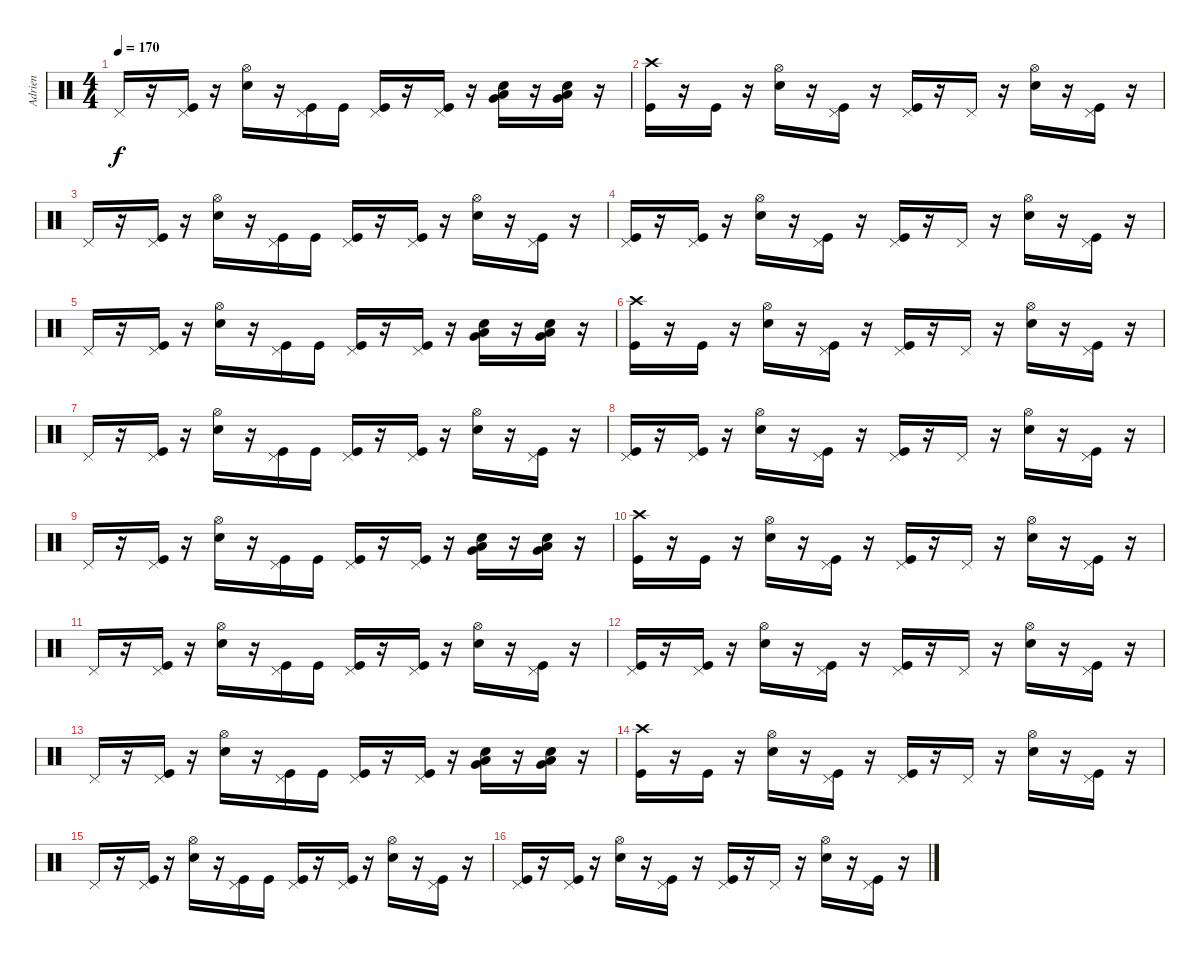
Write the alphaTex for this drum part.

\track ("Adrien" "Adrien") {instrument percussion}
\staff {score}
\articulation defaults
\ts (4 4)
\tempo 170
\clef neutral
\ks c "Pedal Hi-Hat (hit)".16{dy f}
r.16 ("Pedal Hi-Hat (hit)" "Kick (hit)").16 r.16 ("Hi-Hat (open)" "Electric Snare (hit)").16 r.16 ("Pedal Hi-Hat (hit)" "Kick (hit)").16 "Kick (hit)".16 ("Pedal Hi-Hat (hit)" "Kick (hit)").16 r.16 ("Pedal Hi-Hat (hit)" "Kick (hit)").16 r.16 ("Very Low Tom (hit)" "Low Floor Tom (hit)" "Electric Snare (hit)").16 r.16 ("Very Low Tom (hit)" "Low Floor Tom (hit)" "Electric Snare (hit)").16 r.16 |
("Crash high (hit)" "Kick (hit)").16 r.16 "Kick (hit)".16 r.16 ("Hi-Hat (open)" "Electric Snare (hit)").16 r.16 ("Pedal Hi-Hat (hit)" "Kick (hit)").16 r.16 ("Pedal Hi-Hat (hit)" "Kick (hit)").16 r.16 "Pedal Hi-Hat (hit)".16 r.16 ("Hi-Hat (open)" "Electric Snare (hit)").16 r.16 ("Pedal Hi-Hat (hit)" "Kick (hit)").16 r.16 |
"Pedal Hi-Hat (hit)".16 r.16 ("Pedal Hi-Hat (hit)" "Kick (hit)").16 r.16 ("Hi-Hat (open)" "Electric Snare (hit)").16 r.16 ("Pedal Hi-Hat (hit)" "Kick (hit)").16 "Kick (hit)".16 ("Pedal Hi-Hat (hit)" "Kick (hit)").16 r.16 ("Pedal Hi-Hat (hit)" "Kick (hit)").16 r.16 ("Hi-Hat (open)" "Electric Snare (hit)").16 r.16 ("Pedal Hi-Hat (hit)" "Kick (hit)").16 r.16 |
("Pedal Hi-Hat (hit)" "Kick (hit)").16 r.16 ("Pedal Hi-Hat (hit)" "Kick (hit)").16 r.16 ("Hi-Hat (open)" "Electric Snare (hit)").16 r.16 ("Pedal Hi-Hat (hit)" "Kick (hit)").16 r.16 ("Pedal Hi-Hat (hit)" "Kick (hit)").16 r.16 "Pedal Hi-Hat (hit)".16 r.16 ("Hi-Hat (open)" "Electric Snare (hit)").16 r.16 ("Pedal Hi-Hat (hit)" "Kick (hit)").16 r.16 |
"Pedal Hi-Hat (hit)".16 r.16 ("Pedal Hi-Hat (hit)" "Kick (hit)").16 r.16 ("Hi-Hat (open)" "Electric Snare (hit)").16 r.16 ("Pedal Hi-Hat (hit)" "Kick (hit)").16 "Kick (hit)".16 ("Pedal Hi-Hat (hit)" "Kick (hit)").16 r.16 ("Pedal Hi-Hat (hit)" "Kick (hit)").16 r.16 ("Very Low Tom (hit)" "Low Floor Tom (hit)" "Electric Snare (hit)").16 r.16 ("Very Low Tom (hit)" "Low Floor Tom (hit)" "Electric Snare (hit)").16 r.16 |
("Crash high (hit)" "Kick (hit)").16 r.16 "Kick (hit)".16 r.16 ("Hi-Hat (open)" "Electric Snare (hit)").16 r.16 ("Pedal Hi-Hat (hit)" "Kick (hit)").16 r.16 ("Pedal Hi-Hat (hit)" "Kick (hit)").16 r.16 "Pedal Hi-Hat (hit)".16 r.16 ("Hi-Hat (open)" "Electric Snare (hit)").16 r.16 ("Pedal Hi-Hat (hit)" "Kick (hit)").16 r.16 |
"Pedal Hi-Hat (hit)".16 r.16 ("Pedal Hi-Hat (hit)" "Kick (hit)").16 r.16 ("Hi-Hat (open)" "Electric Snare (hit)").16 r.16 ("Pedal Hi-Hat (hit)" "Kick (hit)").16 "Kick (hit)".16 ("Pedal Hi-Hat (hit)" "Kick (hit)").16 r.16 ("Pedal Hi-Hat (hit)" "Kick (hit)").16 r.16 ("Hi-Hat (open)" "Electric Snare (hit)").16 r.16 ("Pedal Hi-Hat (hit)" "Kick (hit)").16 r.16 |
("Pedal Hi-Hat (hit)" "Kick (hit)").16 r.16 ("Pedal Hi-Hat (hit)" "Kick (hit)").16 r.16 ("Hi-Hat (open)" "Electric Snare (hit)").16 r.16 ("Pedal Hi-Hat (hit)" "Kick (hit)").16 r.16 ("Pedal Hi-Hat (hit)" "Kick (hit)").16 r.16 "Pedal Hi-Hat (hit)".16 r.16 ("Hi-Hat (open)" "Electric Snare (hit)").16 r.16 ("Pedal Hi-Hat (hit)" "Kick (hit)").16 r.16 |
"Pedal Hi-Hat (hit)".16 r.16 ("Pedal Hi-Hat (hit)" "Kick (hit)").16 r.16 ("Hi-Hat (open)" "Electric Snare (hit)").16 r.16 ("Pedal Hi-Hat (hit)" "Kick (hit)").16 "Kick (hit)".16 ("Pedal Hi-Hat (hit)" "Kick (hit)").16 r.16 ("Pedal Hi-Hat (hit)" "Kick (hit)").16 r.16 ("Very Low Tom (hit)" "Low Floor Tom (hit)" "Electric Snare (hit)").16 r.16 ("Very Low Tom (hit)" "Low Floor Tom (hit)" "Electric Snare (hit)").16 r.16 |
("Crash high (hit)" "Kick (hit)").16 r.16 "Kick (hit)".16 r.16 ("Hi-Hat (open)" "Electric Snare (hit)").16 r.16 ("Pedal Hi-Hat (hit)" "Kick (hit)").16 r.16 ("Pedal Hi-Hat (hit)" "Kick (hit)").16 r.16 "Pedal Hi-Hat (hit)".16 r.16 ("Hi-Hat (open)" "Electric Snare (hit)").16 r.16 ("Pedal Hi-Hat (hit)" "Kick (hit)").16 r.16 |
"Pedal Hi-Hat (hit)".16 r.16 ("Pedal Hi-Hat (hit)" "Kick (hit)").16 r.16 ("Hi-Hat (open)" "Electric Snare (hit)").16 r.16 ("Pedal Hi-Hat (hit)" "Kick (hit)").16 "Kick (hit)".16 ("Pedal Hi-Hat (hit)" "Kick (hit)").16 r.16 ("Pedal Hi-Hat (hit)" "Kick (hit)").16 r.16 ("Hi-Hat (open)" "Electric Snare (hit)").16 r.16 ("Pedal Hi-Hat (hit)" "Kick (hit)").16 r.16 |
("Pedal Hi-Hat (hit)" "Kick (hit)").16 r.16 ("Pedal Hi-Hat (hit)" "Kick (hit)").16 r.16 ("Hi-Hat (open)" "Electric Snare (hit)").16 r.16 ("Pedal Hi-Hat (hit)" "Kick (hit)").16 r.16 ("Pedal Hi-Hat (hit)" "Kick (hit)").16 r.16 "Pedal Hi-Hat (hit)".16 r.16 ("Hi-Hat (open)" "Electric Snare (hit)").16 r.16 ("Pedal Hi-Hat (hit)" "Kick (hit)").16 r.16 |
"Pedal Hi-Hat (hit)".16 r.16 ("Pedal Hi-Hat (hit)" "Kick (hit)").16 r.16 ("Hi-Hat (open)" "Electric Snare (hit)").16 r.16 ("Pedal Hi-Hat (hit)" "Kick (hit)").16 "Kick (hit)".16 ("Pedal Hi-Hat (hit)" "Kick (hit)").16 r.16 ("Pedal Hi-Hat (hit)" "Kick (hit)").16 r.16 ("Very Low Tom (hit)" "Low Floor Tom (hit)" "Electric Snare (hit)").16 r.16 ("Very Low Tom (hit)" "Low Floor Tom (hit)" "Electric Snare (hit)").16 r.16 |
("Crash high (hit)" "Kick (hit)").16 r.16 "Kick (hit)".16 r.16 ("Hi-Hat (open)" "Electric Snare (hit)").16 r.16 ("Pedal Hi-Hat (hit)" "Kick (hit)").16 r.16 ("Pedal Hi-Hat (hit)" "Kick (hit)").16 r.16 "Pedal Hi-Hat (hit)".16 r.16 ("Hi-Hat (open)" "Electric Snare (hit)").16 r.16 ("Pedal Hi-Hat (hit)" "Kick (hit)").16 r.16 |
"Pedal Hi-Hat (hit)".16 r.16 ("Pedal Hi-Hat (hit)" "Kick (hit)").16 r.16 ("Hi-Hat (open)" "Electric Snare (hit)").16 r.16 ("Pedal Hi-Hat (hit)" "Kick (hit)").16 "Kick (hit)".16 ("Pedal Hi-Hat (hit)" "Kick (hit)").16 r.16 ("Pedal Hi-Hat (hit)" "Kick (hit)").16 r.16 ("Hi-Hat (open)" "Electric Snare (hit)").16 r.16 ("Pedal Hi-Hat (hit)" "Kick (hit)").16 r.16 |
("Pedal Hi-Hat (hit)" "Kick (hit)").16 r.16 ("Pedal Hi-Hat (hit)" "Kick (hit)").16 r.16 ("Hi-Hat (open)" "Electric Snare (hit)").16 r.16 ("Pedal Hi-Hat (hit)" "Kick (hit)").16 r.16 ("Pedal Hi-Hat (hit)" "Kick (hit)").16 r.16 "Pedal Hi-Hat (hit)".16 r.16 ("Hi-Hat (open)" "Electric Snare (hit)").16 r.16 ("Pedal Hi-Hat (hit)" "Kick (hit)").16 r.16
